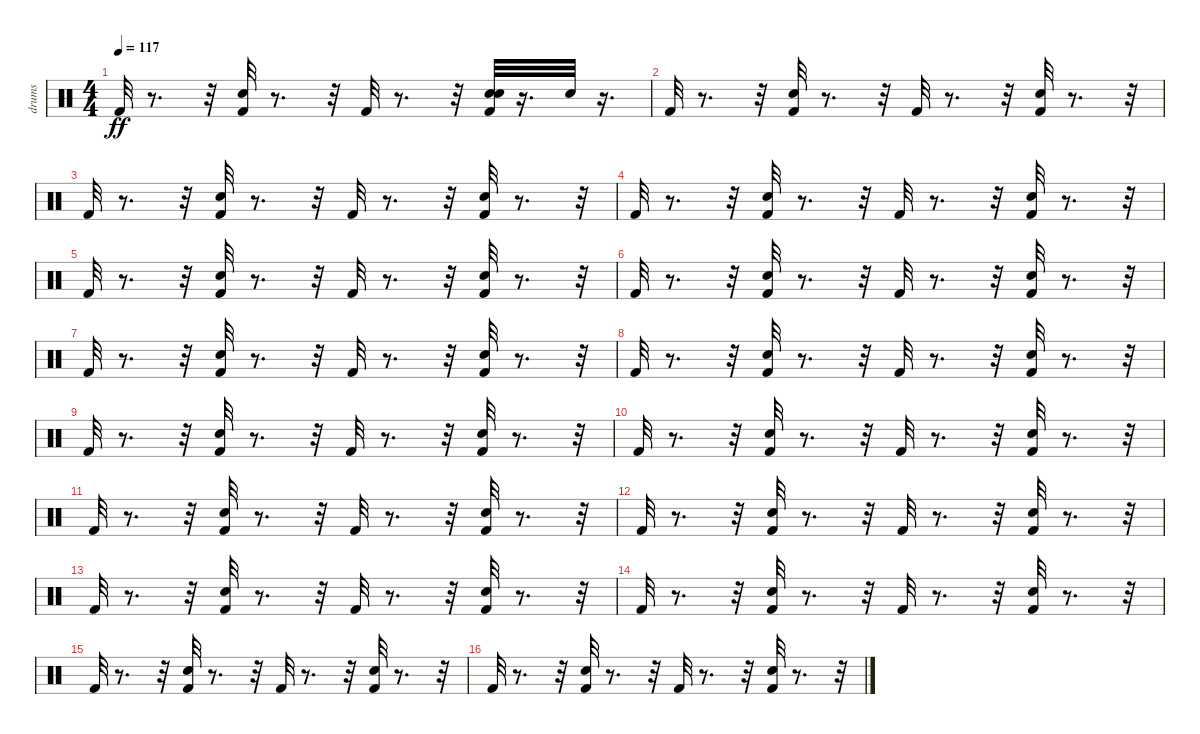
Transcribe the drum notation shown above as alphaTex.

\track ("drums   " "drums   ") {instrument percussion}
\staff {score}
\articulation defaults
\ts (4 4)
\tempo 117
\clef neutral
\ks c "Kick (hit) 2".32{dy ff}
r.8{d} r.32 ("Kick (hit) 2" "Snare (hit) 2").32 r.8{d} r.32 "Kick (hit) 2".32 r.8{d} r.32 ("Kick (hit) 2" "Snare (hit) 2" "Hand Clap (hit)").32 r.16{d} "Hand Clap (hit)".32 r.16{d} |
"Kick (hit) 2".32 r.8{d} r.32 ("Kick (hit) 2" "Snare (hit) 2").32 r.8{d} r.32 "Kick (hit) 2".32 r.8{d} r.32 ("Kick (hit) 2" "Snare (hit) 2").32 r.8{d} r.32 |
"Kick (hit) 2".32 r.8{d} r.32 ("Kick (hit) 2" "Snare (hit) 2").32 r.8{d} r.32 "Kick (hit) 2".32 r.8{d} r.32 ("Kick (hit) 2" "Snare (hit) 2").32 r.8{d} r.32 |
"Kick (hit) 2".32 r.8{d} r.32 ("Kick (hit) 2" "Snare (hit) 2").32 r.8{d} r.32 "Kick (hit) 2".32 r.8{d} r.32 ("Kick (hit) 2" "Snare (hit) 2").32 r.8{d} r.32 |
"Kick (hit) 2".32 r.8{d} r.32 ("Kick (hit) 2" "Snare (hit) 2").32 r.8{d} r.32 "Kick (hit) 2".32 r.8{d} r.32 ("Kick (hit) 2" "Snare (hit) 2").32 r.8{d} r.32 |
"Kick (hit) 2".32 r.8{d} r.32 ("Kick (hit) 2" "Snare (hit) 2").32 r.8{d} r.32 "Kick (hit) 2".32 r.8{d} r.32 ("Kick (hit) 2" "Snare (hit) 2").32 r.8{d} r.32 |
"Kick (hit) 2".32 r.8{d} r.32 ("Kick (hit) 2" "Snare (hit) 2").32 r.8{d} r.32 "Kick (hit) 2".32 r.8{d} r.32 ("Kick (hit) 2" "Snare (hit) 2").32 r.8{d} r.32 |
"Kick (hit) 2".32 r.8{d} r.32 ("Kick (hit) 2" "Snare (hit) 2").32 r.8{d} r.32 "Kick (hit) 2".32 r.8{d} r.32 ("Kick (hit) 2" "Snare (hit) 2").32 r.8{d} r.32 |
"Kick (hit) 2".32 r.8{d} r.32 ("Kick (hit) 2" "Snare (hit) 2").32 r.8{d} r.32 "Kick (hit) 2".32 r.8{d} r.32 ("Kick (hit) 2" "Snare (hit) 2").32 r.8{d} r.32 |
"Kick (hit) 2".32 r.8{d} r.32 ("Kick (hit) 2" "Snare (hit) 2").32 r.8{d} r.32 "Kick (hit) 2".32 r.8{d} r.32 ("Kick (hit) 2" "Snare (hit) 2").32 r.8{d} r.32 |
"Kick (hit) 2".32 r.8{d} r.32 ("Kick (hit) 2" "Snare (hit) 2").32 r.8{d} r.32 "Kick (hit) 2".32 r.8{d} r.32 ("Kick (hit) 2" "Snare (hit) 2").32 r.8{d} r.32 |
"Kick (hit) 2".32 r.8{d} r.32 ("Kick (hit) 2" "Snare (hit) 2").32 r.8{d} r.32 "Kick (hit) 2".32 r.8{d} r.32 ("Kick (hit) 2" "Snare (hit) 2").32 r.8{d} r.32 |
"Kick (hit) 2".32 r.8{d} r.32 ("Kick (hit) 2" "Snare (hit) 2").32 r.8{d} r.32 "Kick (hit) 2".32 r.8{d} r.32 ("Kick (hit) 2" "Snare (hit) 2").32 r.8{d} r.32 |
"Kick (hit) 2".32 r.8{d} r.32 ("Kick (hit) 2" "Snare (hit) 2").32 r.8{d} r.32 "Kick (hit) 2".32 r.8{d} r.32 ("Kick (hit) 2" "Snare (hit) 2").32 r.8{d} r.32 |
"Kick (hit) 2".32 r.8{d} r.32 ("Kick (hit) 2" "Snare (hit) 2").32 r.8{d} r.32 "Kick (hit) 2".32 r.8{d} r.32 ("Kick (hit) 2" "Snare (hit) 2").32 r.8{d} r.32 |
"Kick (hit) 2".32 r.8{d} r.32 ("Kick (hit) 2" "Snare (hit) 2").32 r.8{d} r.32 "Kick (hit) 2".32 r.8{d} r.32 ("Kick (hit) 2" "Snare (hit) 2").32 r.8{d} r.32
